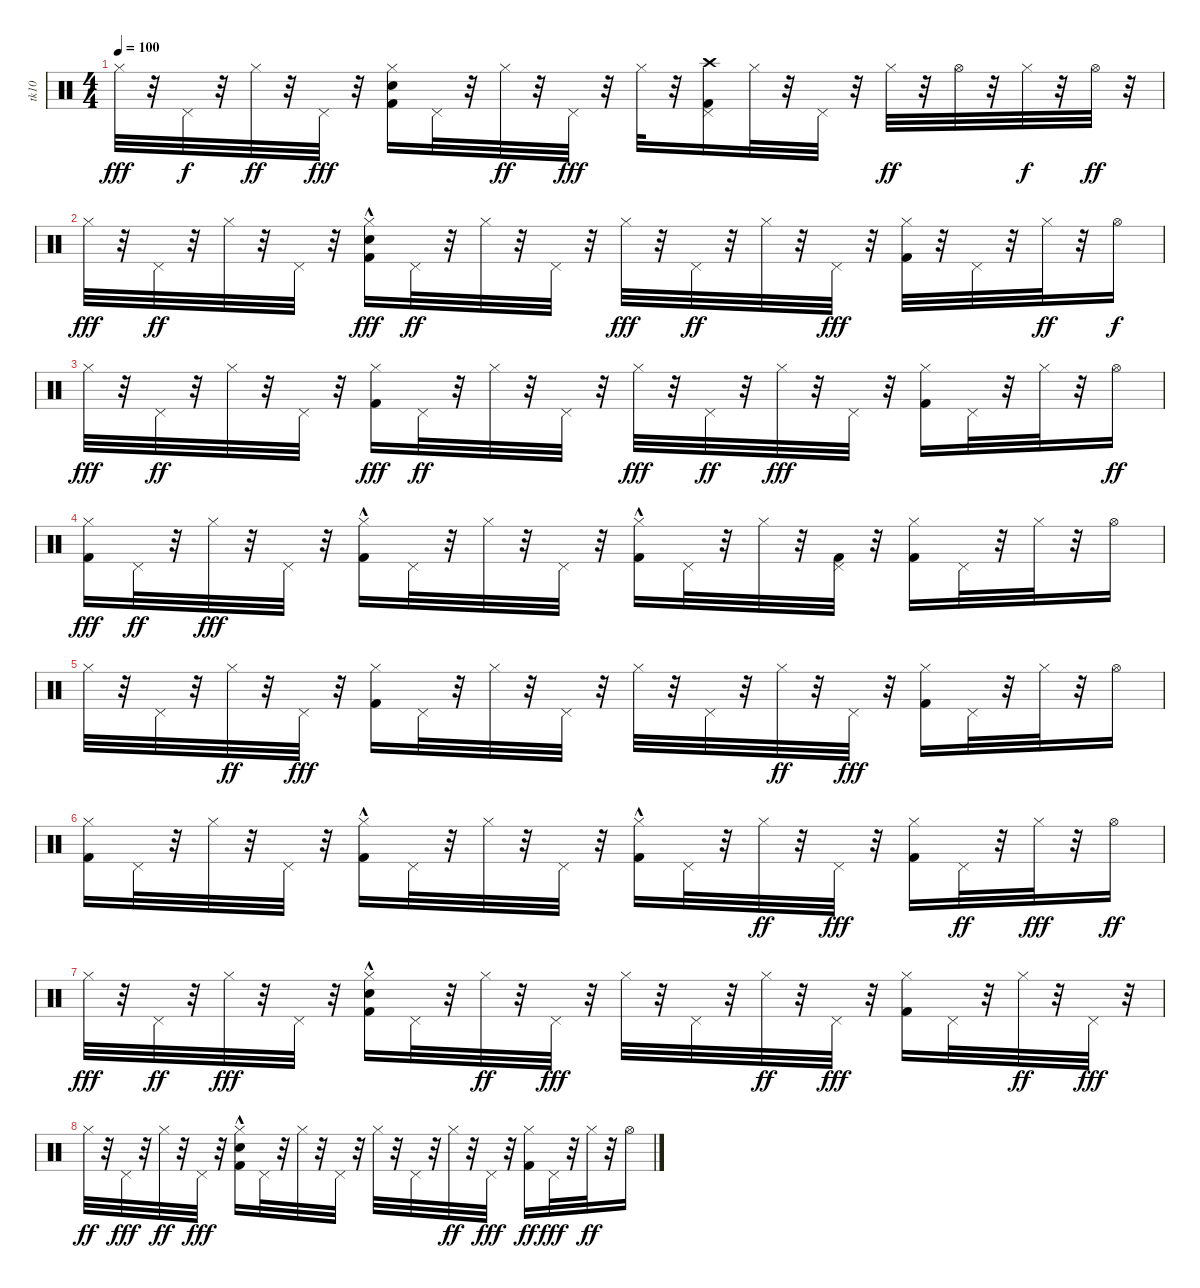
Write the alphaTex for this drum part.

\track ("tk10" "tk10") {instrument percussion}
\staff {score}
\articulation defaults
\ts (4 4)
\tempo 100
\clef neutral
\ks c "Hi-Hat (closed)".32{dy fff}
r.32 "Pedal Hi-Hat (hit)".32{dy f} r.32 "Hi-Hat (closed)".32{dy ff} r.32 "Pedal Hi-Hat (hit)".32{dy fff} r.32 ("Kick (hit) 2" "Hi-Hat (closed)" "Snare (hit) 2").16 "Pedal Hi-Hat (hit)".32 r.32 "Hi-Hat (closed)".32{dy ff} r.32 "Pedal Hi-Hat (hit)".32{dy fff} r.32 "Hi-Hat (closed)".32 r.32 ("Crash high (hit)" "Pedal Hi-Hat (hit)" "Kick (hit) 2").16 "Hi-Hat (closed)".32 r.32 "Pedal Hi-Hat (hit)".32 r.32 "Hi-Hat (closed)".32{dy ff} r.32 "Hi-Hat (open)".32 r.32 "Hi-Hat (closed)".32{dy f} r.32 "Hi-Hat (open)".32{dy ff} r.32 |
"Hi-Hat (closed)".32{dy fff} r.32 "Pedal Hi-Hat (hit)".32{dy ff} r.32 "Hi-Hat (closed)".32 r.32 "Pedal Hi-Hat (hit)".32 r.32 ("Kick (hit) 2" "Hi-Hat (closed)" "Snare (hit) 2"{hac}).16{dy fff} "Pedal Hi-Hat (hit)".32{dy ff} r.32 "Hi-Hat (closed)".32 r.32 "Pedal Hi-Hat (hit)".32 r.32 "Hi-Hat (closed)".32{dy fff} r.32 "Pedal Hi-Hat (hit)".32{dy ff} r.32 "Hi-Hat (closed)".32 r.32 "Pedal Hi-Hat (hit)".32{dy fff} r.32 ("Kick (hit) 2" "Hi-Hat (closed)").32 r.32 "Pedal Hi-Hat (hit)".32 r.32 "Hi-Hat (closed)".32{dy ff} r.32 "Hi-Hat (open)".16{dy f} |
"Hi-Hat (closed)".32{dy fff} r.32 "Pedal Hi-Hat (hit)".32{dy ff} r.32 "Hi-Hat (closed)".32 r.32 "Pedal Hi-Hat (hit)".32 r.32 ("Kick (hit) 2" "Hi-Hat (closed)").16{dy fff} "Pedal Hi-Hat (hit)".32{dy ff} r.32 "Hi-Hat (closed)".32 r.32 "Pedal Hi-Hat (hit)".32 r.32 "Hi-Hat (closed)".32{dy fff} r.32 "Pedal Hi-Hat (hit)".32{dy ff} r.32 "Hi-Hat (closed)".32{dy fff} r.32 "Pedal Hi-Hat (hit)".32 r.32 ("Kick (hit) 2" "Hi-Hat (closed)").16 "Pedal Hi-Hat (hit)".32 r.32 "Hi-Hat (closed)".32 r.32 "Hi-Hat (open)".16{dy ff} |
("Kick (hit) 2" "Hi-Hat (closed)").16{dy fff} "Pedal Hi-Hat (hit)".32{dy ff} r.32 "Hi-Hat (closed)".32{dy fff} r.32 "Pedal Hi-Hat (hit)".32 r.32 ("Kick (hit) 2"{hac} "Hi-Hat (closed)").16 "Pedal Hi-Hat (hit)".32 r.32 "Hi-Hat (closed)".32 r.32 "Pedal Hi-Hat (hit)".32 r.32 ("Kick (hit) 2"{hac} "Hi-Hat (closed)").16 "Pedal Hi-Hat (hit)".32 r.32 "Hi-Hat (closed)".32 r.32 ("Kick (hit) 2" "Pedal Hi-Hat (hit)").32 r.32 ("Kick (hit) 2" "Hi-Hat (closed)").16 "Pedal Hi-Hat (hit)".32 r.32 "Hi-Hat (closed)".32 r.32 "Hi-Hat (open)".16 |
"Hi-Hat (closed)".32 r.32 "Pedal Hi-Hat (hit)".32 r.32 "Hi-Hat (closed)".32{dy ff} r.32 "Pedal Hi-Hat (hit)".32{dy fff} r.32 ("Hi-Hat (closed)" "Kick (hit) 2").16 "Pedal Hi-Hat (hit)".32 r.32 "Hi-Hat (closed)".32 r.32 "Pedal Hi-Hat (hit)".32 r.32 "Hi-Hat (closed)".32 r.32 "Pedal Hi-Hat (hit)".32 r.32 "Hi-Hat (closed)".32{dy ff} r.32 "Pedal Hi-Hat (hit)".32{dy fff} r.32 ("Kick (hit) 2" "Hi-Hat (closed)").16 "Pedal Hi-Hat (hit)".32 r.32 "Hi-Hat (closed)".32 r.32 "Hi-Hat (open)".16 |
("Kick (hit) 2" "Hi-Hat (closed)").16 "Pedal Hi-Hat (hit)".32 r.32 "Hi-Hat (closed)".32 r.32 "Pedal Hi-Hat (hit)".32 r.32 ("Kick (hit) 2"{hac} "Hi-Hat (closed)").16 "Pedal Hi-Hat (hit)".32 r.32 "Hi-Hat (closed)".32 r.32 "Pedal Hi-Hat (hit)".32 r.32 ("Kick (hit) 2"{hac} "Hi-Hat (closed)").16 "Pedal Hi-Hat (hit)".32 r.32 "Hi-Hat (closed)".32{dy ff} r.32 "Pedal Hi-Hat (hit)".32{dy fff} r.32 ("Kick (hit) 2" "Hi-Hat (closed)").16 "Pedal Hi-Hat (hit)".32{dy ff} r.32 "Hi-Hat (closed)".32{dy fff} r.32 "Hi-Hat (open)".16{dy ff} |
"Hi-Hat (closed)".32{dy fff} r.32 "Pedal Hi-Hat (hit)".32{dy ff} r.32 "Hi-Hat (closed)".32{dy fff} r.32 "Pedal Hi-Hat (hit)".32 r.32 ("Kick (hit) 2"{hac} "Electric Snare (hit)" "Hi-Hat (closed)").16 "Pedal Hi-Hat (hit)".32 r.32 "Hi-Hat (closed)".32{dy ff} r.32 "Pedal Hi-Hat (hit)".32{dy fff} r.32 "Hi-Hat (closed)".32 r.32 "Pedal Hi-Hat (hit)".32 r.32 "Hi-Hat (closed)".32{dy ff} r.32 "Pedal Hi-Hat (hit)".32{dy fff} r.32 ("Kick (hit) 2" "Hi-Hat (closed)").16 "Pedal Hi-Hat (hit)".32 r.32 "Hi-Hat (closed)".32{dy ff} r.32 "Pedal Hi-Hat (hit)".32{dy fff} r.32 |
"Hi-Hat (closed)".32{dy ff} r.32 "Pedal Hi-Hat (hit)".32{dy fff} r.32 "Hi-Hat (closed)".32{dy ff} r.32 "Pedal Hi-Hat (hit)".32{dy fff} r.32 ("Kick (hit) 2" "Electric Snare (hit)"{hac} "Hi-Hat (closed)").16 "Pedal Hi-Hat (hit)".32 r.32 "Hi-Hat (closed)".32 r.32 "Pedal Hi-Hat (hit)".32 r.32 "Hi-Hat (closed)".32 r.32 "Pedal Hi-Hat (hit)".32 r.32 "Hi-Hat (closed)".32{dy ff} r.32 "Pedal Hi-Hat (hit)".32{dy fff} r.32 ("Kick (hit) 2" "Hi-Hat (closed)").16{dy ff} "Pedal Hi-Hat (hit)".32{dy fff} r.32 "Hi-Hat (closed)".32{dy ff} r.32 "Hi-Hat (open)".16
